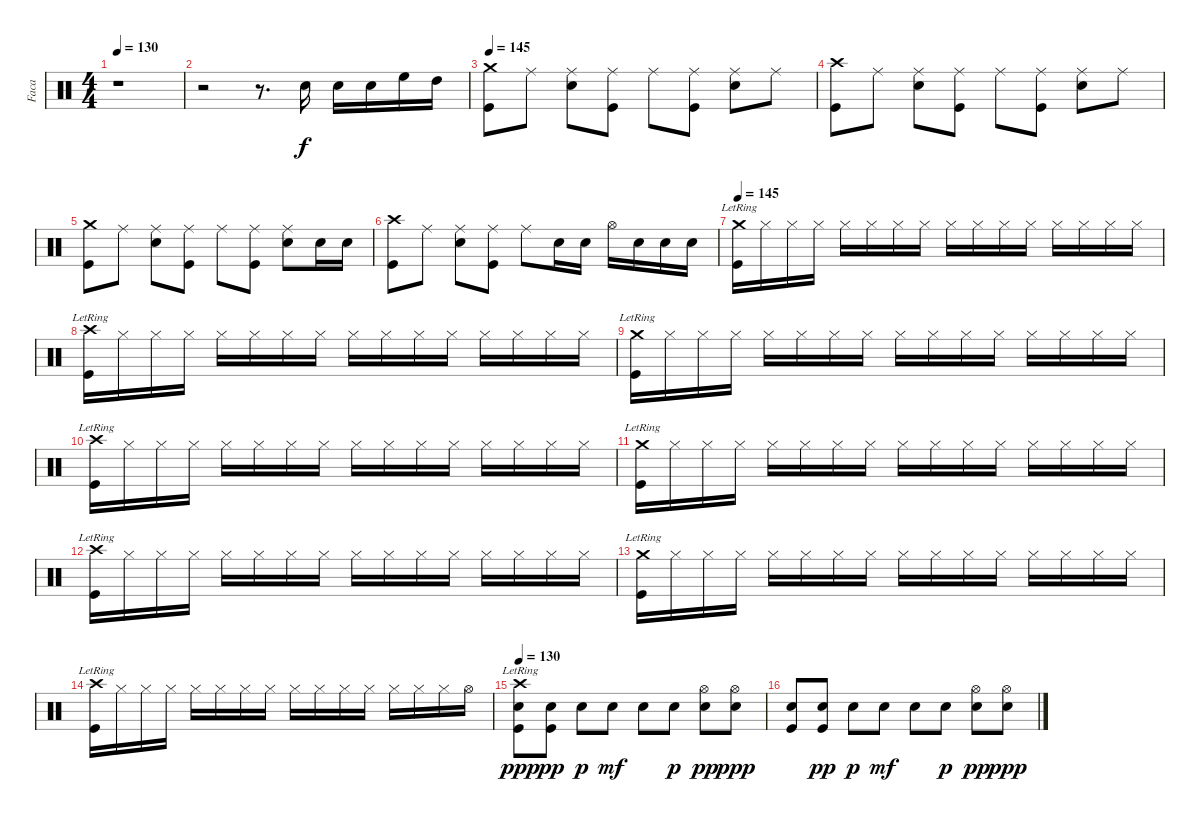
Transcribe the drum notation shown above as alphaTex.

\track ("Faca" "Faca") {instrument percussion}
\staff {score}
\articulation defaults
\ts (4 4)
\tempo 130
\clef neutral
\ks c
r.1{dy f} |
r.2 r.8{d} "Snare (hit) 2".16 "Snare (hit) 2".16 "Snare (hit) 2".16 "High Floor Tom (hit)".16 "High Tom (hit)".16 |
\tempo 145
("Crash medium (hit)" "Kick (hit)").8 "Ride (middle)".8 ("Ride (middle)" "Snare (hit) 2").8 ("Ride (middle)" "Kick (hit)").8 "Ride (middle)".8 ("Ride (middle)" "Kick (hit)").8 ("Ride (middle)" "Snare (hit) 2").8 "Ride (middle)".8 |
("Crash high (hit)" "Kick (hit)").8 "Ride (middle)".8 ("Ride (middle)" "Snare (hit) 2").8 ("Ride (middle)" "Kick (hit)").8 "Ride (middle)".8 ("Ride (middle)" "Kick (hit)").8 ("Ride (middle)" "Snare (hit) 2").8 "Ride (middle)".8 |
("Crash medium (hit)" "Kick (hit)").8 "Ride (middle)".8 ("Ride (middle)" "Snare (hit) 2").8 ("Ride (middle)" "Kick (hit)").8 "Ride (middle)".8 ("Ride (middle)" "Kick (hit)").8 ("Ride (middle)" "Snare (hit) 2").8 "Snare (hit) 2".16 "Snare (hit) 2".16 |
("Crash high (hit)" "Kick (hit)").8 "Ride (middle)".8 ("Ride (middle)" "Snare (hit) 2").8 ("Ride (middle)" "Kick (hit)").8 "Ride (middle)".8 "Snare (hit) 2".16 "Snare (hit) 2".16 "Hi-Hat (open)".16 "Snare (hit) 2".16 "Snare (hit) 2".16 "Snare (hit) 2".16 |
\tempo 145
("Crash medium (hit)"{lr} "Kick (hit)").16 "Hi-Hat (closed)".16 "Hi-Hat (closed)".16 "Hi-Hat (closed)".16 "Hi-Hat (closed)".16 "Hi-Hat (closed)".16 "Hi-Hat (closed)".16 "Hi-Hat (closed)".16 "Hi-Hat (closed)".16 "Hi-Hat (closed)".16 "Hi-Hat (closed)".16 "Hi-Hat (closed)".16 "Hi-Hat (closed)".16 "Hi-Hat (closed)".16 "Hi-Hat (closed)".16 "Hi-Hat (closed)".16 |
("Crash high (hit)"{lr} "Kick (hit)").16 "Hi-Hat (closed)".16 "Hi-Hat (closed)".16 "Hi-Hat (closed)".16 "Hi-Hat (closed)".16 "Hi-Hat (closed)".16 "Hi-Hat (closed)".16 "Hi-Hat (closed)".16 "Hi-Hat (closed)".16 "Hi-Hat (closed)".16 "Hi-Hat (closed)".16 "Hi-Hat (closed)".16 "Hi-Hat (closed)".16 "Hi-Hat (closed)".16 "Hi-Hat (closed)".16 "Hi-Hat (closed)".16 |
("Crash medium (hit)"{lr} "Kick (hit)").16 "Hi-Hat (closed)".16 "Hi-Hat (closed)".16 "Hi-Hat (closed)".16 "Hi-Hat (closed)".16 "Hi-Hat (closed)".16 "Hi-Hat (closed)".16 "Hi-Hat (closed)".16 "Hi-Hat (closed)".16 "Hi-Hat (closed)".16 "Hi-Hat (closed)".16 "Hi-Hat (closed)".16 "Hi-Hat (closed)".16 "Hi-Hat (closed)".16 "Hi-Hat (closed)".16 "Hi-Hat (closed)".16 |
("Crash high (hit)"{lr} "Kick (hit)").16 "Hi-Hat (closed)".16 "Hi-Hat (closed)".16 "Hi-Hat (closed)".16 "Hi-Hat (closed)".16 "Hi-Hat (closed)".16 "Hi-Hat (closed)".16 "Hi-Hat (closed)".16 "Hi-Hat (closed)".16 "Hi-Hat (closed)".16 "Hi-Hat (closed)".16 "Hi-Hat (closed)".16 "Hi-Hat (closed)".16 "Hi-Hat (closed)".16 "Hi-Hat (closed)".16 "Hi-Hat (closed)".16 |
("Crash medium (hit)"{lr} "Kick (hit)").16 "Hi-Hat (closed)".16 "Hi-Hat (closed)".16 "Hi-Hat (closed)".16 "Hi-Hat (closed)".16 "Hi-Hat (closed)".16 "Hi-Hat (closed)".16 "Hi-Hat (closed)".16 "Hi-Hat (closed)".16 "Hi-Hat (closed)".16 "Hi-Hat (closed)".16 "Hi-Hat (closed)".16 "Hi-Hat (closed)".16 "Hi-Hat (closed)".16 "Hi-Hat (closed)".16 "Hi-Hat (closed)".16 |
("Crash high (hit)"{lr} "Kick (hit)").16 "Hi-Hat (closed)".16 "Hi-Hat (closed)".16 "Hi-Hat (closed)".16 "Hi-Hat (closed)".16 "Hi-Hat (closed)".16 "Hi-Hat (closed)".16 "Hi-Hat (closed)".16 "Hi-Hat (closed)".16 "Hi-Hat (closed)".16 "Hi-Hat (closed)".16 "Hi-Hat (closed)".16 "Hi-Hat (closed)".16 "Hi-Hat (closed)".16 "Hi-Hat (closed)".16 "Hi-Hat (closed)".16 |
("Crash medium (hit)"{lr} "Kick (hit)").16 "Hi-Hat (closed)".16 "Hi-Hat (closed)".16 "Hi-Hat (closed)".16 "Hi-Hat (closed)".16 "Hi-Hat (closed)".16 "Hi-Hat (closed)".16 "Hi-Hat (closed)".16 "Hi-Hat (closed)".16 "Hi-Hat (closed)".16 "Hi-Hat (closed)".16 "Hi-Hat (closed)".16 "Hi-Hat (closed)".16 "Hi-Hat (closed)".16 "Hi-Hat (closed)".16 "Hi-Hat (closed)".16 |
("Crash high (hit)"{lr} "Kick (hit)").16 "Hi-Hat (closed)".16 "Hi-Hat (closed)".16 "Hi-Hat (closed)".16 "Hi-Hat (closed)".16 "Hi-Hat (closed)".16 "Hi-Hat (closed)".16 "Hi-Hat (closed)".16 "Hi-Hat (closed)".16 "Hi-Hat (closed)".16 "Hi-Hat (closed)".16 "Hi-Hat (closed)".16 "Hi-Hat (closed)".16 "Hi-Hat (closed)".16 "Hi-Hat (closed)".16 "Hi-Hat (open)".16 |
\tempo 130
("Crash high (hit)"{lr} "Snare (hit) 2" "Kick (hit)").8{dy ppp} ("Snare (hit) 2" "Kick (hit)").8{dy pp} "Snare (hit) 2".8{dy p} "Snare (hit) 2".8{dy mf} "Snare (hit) 2".8 "Snare (hit) 2".8{dy p} ("Hi-Hat (open)" "Snare (hit) 2").8{dy pp} ("Hi-Hat (open)" "Snare (hit) 2").8{dy ppp} |
("Snare (hit) 2" "Kick (hit)").8 ("Snare (hit) 2" "Kick (hit)").8{dy pp} "Snare (hit) 2".8{dy p} "Snare (hit) 2".8{dy mf} "Snare (hit) 2".8 "Snare (hit) 2".8{dy p} ("Hi-Hat (open)" "Snare (hit) 2").8{dy pp} ("Hi-Hat (open)" "Snare (hit) 2").8{dy ppp}
